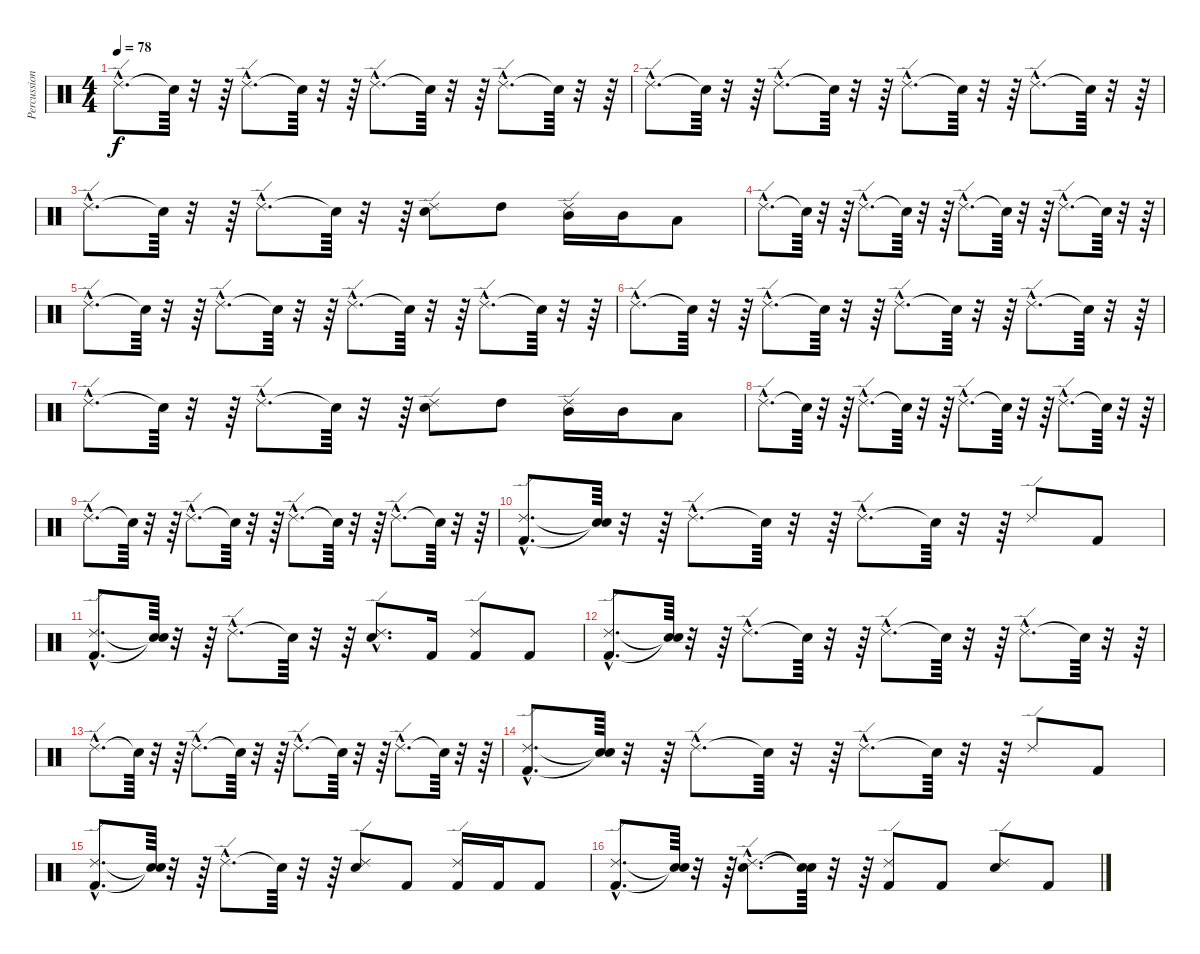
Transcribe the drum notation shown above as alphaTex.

\track ("Percussion" "Percussion") {instrument percussion}
\staff {score}
\articulation defaults
\ts (4 4)
\tempo 78
\clef neutral
\ks c "Ride (edge) 2"{hac}.8{d dy f} "Snare (hit)"{t}.64
r.32 r.64 "Ride (edge) 2"{hac}.8{d} "Snare (hit)"{t}.64 r.32 r.64 "Ride (edge) 2"{hac}.8{d} "Snare (hit)"{t}.64 r.32 r.64 "Ride (edge) 2"{hac}.8{d} "Snare (hit)"{t}.64 r.32 r.64 |
"Ride (edge) 2"{hac}.8{d} "Snare (hit)"{t}.64 r.32 r.64 "Ride (edge) 2"{hac}.8{d} "Snare (hit)"{t}.64 r.32 r.64 "Ride (edge) 2"{hac}.8{d} "Snare (hit)"{t}.64 r.32 r.64 "Ride (edge) 2"{hac}.8{d} "Snare (hit)"{t}.64 r.32 r.64 |
"Ride (edge) 2"{hac}.8{d} "Snare (hit)"{t}.64 r.32 r.64 "Ride (edge) 2"{hac}.8{d} "Snare (hit)"{t}.64 r.32 r.64 ("Snare (hit) 2" "Ride (edge) 2").8 "High Tom (hit)".8 ("Mid Tom (hit)" "Ride (edge) 2").16 "Mid Tom (hit)".16 "Low Tom (hit)".8 |
"Ride (edge) 2"{hac}.8{d} "Snare (hit)"{t}.64 r.32 r.64 "Ride (edge) 2"{hac}.8{d} "Snare (hit)"{t}.64 r.32 r.64 "Ride (edge) 2"{hac}.8{d} "Snare (hit)"{t}.64 r.32 r.64 "Ride (edge) 2"{hac}.8{d} "Snare (hit)"{t}.64 r.32 r.64 |
"Ride (edge) 2"{hac}.8{d} "Snare (hit)"{t}.64 r.32 r.64 "Ride (edge) 2"{hac}.8{d} "Snare (hit)"{t}.64 r.32 r.64 "Ride (edge) 2"{hac}.8{d} "Snare (hit)"{t}.64 r.32 r.64 "Ride (edge) 2"{hac}.8{d} "Snare (hit)"{t}.64 r.32 r.64 |
"Ride (edge) 2"{hac}.8{d} "Snare (hit)"{t}.64 r.32 r.64 "Ride (edge) 2"{hac}.8{d} "Snare (hit)"{t}.64 r.32 r.64 "Ride (edge) 2"{hac}.8{d} "Snare (hit)"{t}.64 r.32 r.64 "Ride (edge) 2"{hac}.8{d} "Snare (hit)"{t}.64 r.32 r.64 |
"Ride (edge) 2"{hac}.8{d} "Snare (hit)"{t}.64 r.32 r.64 "Ride (edge) 2"{hac}.8{d} "Snare (hit)"{t}.64 r.32 r.64 ("Snare (hit) 2" "Ride (edge) 2").8 "High Tom (hit)".8 ("Mid Tom (hit)" "Ride (edge) 2").16 "Mid Tom (hit)".16 "Low Tom (hit)".8 |
"Ride (edge) 2"{hac}.8{d} "Snare (hit)"{t}.64 r.32 r.64 "Ride (edge) 2"{hac}.8{d} "Snare (hit)"{t}.64 r.32 r.64 "Ride (edge) 2"{hac}.8{d} "Snare (hit)"{t}.64 r.32 r.64 "Ride (edge) 2"{hac}.8{d} "Snare (hit)"{t}.64 r.32 r.64 |
"Ride (edge) 2"{hac}.8{d} "Snare (hit)"{t}.64 r.32 r.64 "Ride (edge) 2"{hac}.8{d} "Snare (hit)"{t}.64 r.32 r.64 "Ride (edge) 2"{hac}.8{d} "Snare (hit)"{t}.64 r.32 r.64 "Ride (edge) 2"{hac}.8{d} "Snare (hit)"{t}.64 r.32 r.64 |
("Kick (hit) 2"{hac} "Ride (edge) 2"{hac}).8{d} ("Snare (hit)"{t} "Snare (hit)"{t}).64 r.32 r.64 "Ride (edge) 2"{hac}.8{d} "Snare (hit)"{t}.64 r.32 r.64 "Ride (edge) 2"{hac}.8{d} "Snare (hit)"{t}.64 r.32 r.64 "Ride (edge) 2".8 "Kick (hit) 2".8 |
("Kick (hit) 2"{hac} "Ride (edge) 2"{hac}).8{d} ("Snare (hit)"{t} "Snare (hit)"{t}).64 r.32 r.64 "Ride (edge) 2"{hac}.8{d} "Snare (hit)"{t}.64 r.32 r.64 ("Snare (hit) 2"{hac} "Ride (edge) 2"{hac}).8{d} "Kick (hit) 2".16 ("Kick (hit) 2" "Ride (edge) 2").8 "Kick (hit) 2".8 |
("Kick (hit) 2"{hac} "Ride (edge) 2"{hac}).8{d} ("Snare (hit)"{t} "Snare (hit)"{t}).64 r.32 r.64 "Ride (edge) 2"{hac}.8{d} "Snare (hit)"{t}.64 r.32 r.64 "Ride (edge) 2"{hac}.8{d} "Snare (hit)"{t}.64 r.32 r.64 "Ride (edge) 2"{hac}.8{d} "Snare (hit)"{t}.64 r.32 r.64 |
"Ride (edge) 2"{hac}.8{d} "Snare (hit)"{t}.64 r.32 r.64 "Ride (edge) 2"{hac}.8{d} "Snare (hit)"{t}.64 r.32 r.64 "Ride (edge) 2"{hac}.8{d} "Snare (hit)"{t}.64 r.32 r.64 "Ride (edge) 2"{hac}.8{d} "Snare (hit)"{t}.64 r.32 r.64 |
("Kick (hit) 2"{hac} "Ride (edge) 2"{hac}).8{d} ("Snare (hit)"{t} "Snare (hit)"{t}).64 r.32 r.64 "Ride (edge) 2"{hac}.8{d} "Snare (hit)"{t}.64 r.32 r.64 "Ride (edge) 2"{hac}.8{d} "Snare (hit)"{t}.64 r.32 r.64 "Ride (edge) 2".8 "Kick (hit) 2".8 |
("Kick (hit) 2"{hac} "Ride (edge) 2"{hac}).8{d} ("Snare (hit)"{t} "Snare (hit)"{t}).64 r.32 r.64 "Ride (edge) 2"{hac}.8{d} "Snare (hit)"{t}.64 r.32 r.64 ("Snare (hit) 2" "Ride (edge) 2").8 "Kick (hit) 2".8 ("Kick (hit) 2" "Ride (edge) 2").16 "Kick (hit) 2".16 "Kick (hit) 2".8 |
("Kick (hit) 2"{hac} "Ride (edge) 2"{hac}).8{d} ("Snare (hit)"{t} "Snare (hit)"{t}).64 r.32 r.64 ("Snare (hit) 2"{hac} "Ride (edge) 2"{hac}).8{d} ("Snare (hit)"{t} "Snare (hit)"{t}).64 r.32 r.64 ("Kick (hit) 2" "Ride (edge) 2").8 "Kick (hit) 2".8 ("Snare (hit) 2" "Ride (edge) 2").8 "Kick (hit) 2".8
